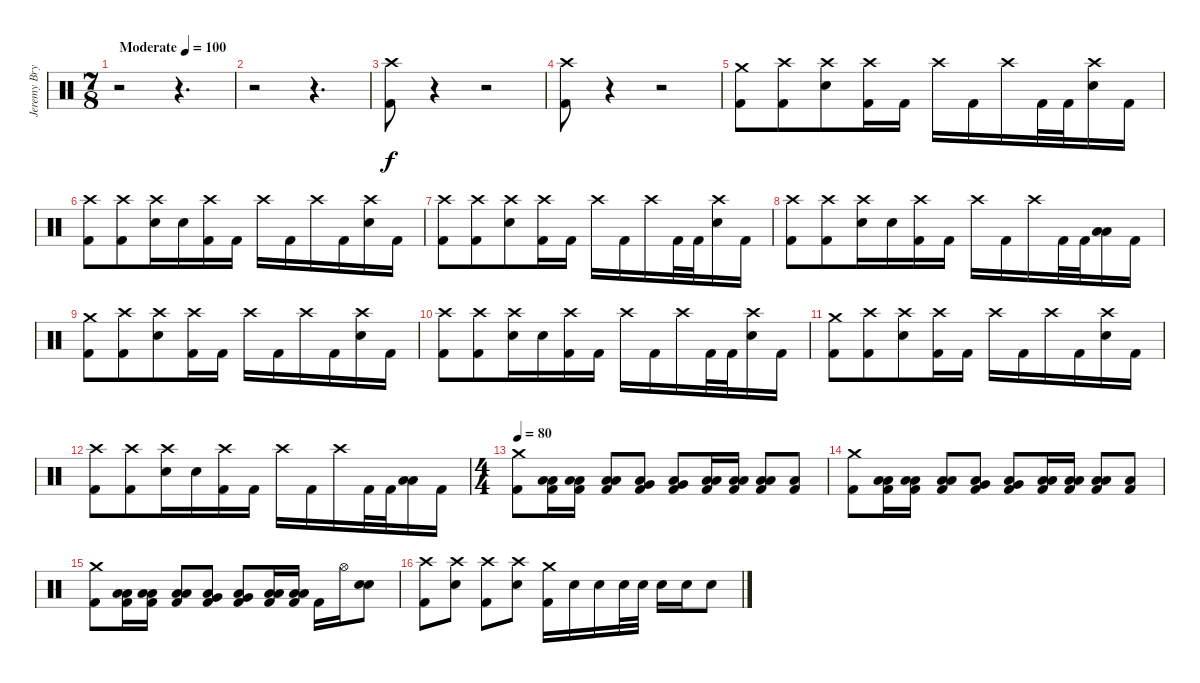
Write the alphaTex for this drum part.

\track ("Jeremy Bryan - Drums" "Jeremy Bry") {instrument percussion}
\staff {score}
\articulation defaults
\ts (7 8)
\tempo (100 "Moderate")
\clef neutral
\ks c
r.2{dy f} r.4{d} |
r.2 r.4{d} |
("Crash high (hit)" "Kick (hit) 2").8 r.4 r.2 |
("Crash high (hit)" "Kick (hit) 2").8 r.4 r.2 |
("Crash medium (hit)" "Kick (hit) 2").8 ("Crash high (hit)" "Kick (hit) 2").8 ("Crash high (hit)" "Electric Snare (hit)").8 ("Crash high (hit)" "Kick (hit) 2").16 "Kick (hit) 2".16 "Crash high (hit)".16 "Kick (hit) 2".16 "Crash high (hit)".16 "Kick (hit) 2".32 "Kick (hit) 2".32 ("Crash high (hit)" "Electric Snare (hit)").16 "Kick (hit) 2".16 |
("Crash high (hit)" "Kick (hit) 2").8 ("Crash high (hit)" "Kick (hit) 2").8 ("Crash high (hit)" "Electric Snare (hit)").16 "Electric Snare (hit)".16 ("Crash high (hit)" "Kick (hit) 2").16 "Kick (hit) 2".16 "Crash high (hit)".16 "Kick (hit) 2".16 "Crash high (hit)".16 "Kick (hit) 2".16 ("Crash high (hit)" "Electric Snare (hit)").16 "Kick (hit) 2".16 |
("Crash high (hit)" "Kick (hit) 2").8 ("Crash high (hit)" "Kick (hit) 2").8 ("Crash high (hit)" "Electric Snare (hit)").8 ("Crash high (hit)" "Kick (hit) 2").16 "Kick (hit) 2".16 "Crash high (hit)".16 "Kick (hit) 2".16 "Crash high (hit)".16 "Kick (hit) 2".32 "Kick (hit) 2".32 ("Crash high (hit)" "Electric Snare (hit)").16 "Kick (hit) 2".16 |
("Crash high (hit)" "Kick (hit) 2").8 ("Crash high (hit)" "Kick (hit) 2").8 ("Crash high (hit)" "Electric Snare (hit)").16 "Electric Snare (hit)".16 ("Crash high (hit)" "Kick (hit) 2").16 "Kick (hit) 2".16 "Crash high (hit)".16 "Kick (hit) 2".16 "Crash high (hit)".16 "Kick (hit) 2".32 "Kick (hit) 2".32 ("Low Tom (hit)" "Low Floor Tom (hit)").16 "Kick (hit) 2".16 |
("Crash medium (hit)" "Kick (hit) 2").8 ("Crash high (hit)" "Kick (hit) 2").8 ("Crash high (hit)" "Electric Snare (hit)").8 ("Crash high (hit)" "Kick (hit) 2").16 "Kick (hit) 2".16 "Crash high (hit)".16 "Kick (hit) 2".16 "Crash high (hit)".16 "Kick (hit) 2".16 ("Crash high (hit)" "Electric Snare (hit)").16 "Kick (hit) 2".16 |
("Crash high (hit)" "Kick (hit) 2").8 ("Crash high (hit)" "Kick (hit) 2").8 ("Crash high (hit)" "Electric Snare (hit)").16 "Electric Snare (hit)".16 ("Crash high (hit)" "Kick (hit) 2").16 "Kick (hit) 2".16 "Crash high (hit)".16 "Kick (hit) 2".16 "Crash high (hit)".16 "Kick (hit) 2".32 "Kick (hit) 2".32 ("Crash high (hit)" "Electric Snare (hit)").16 "Kick (hit) 2".16 |
("Crash medium (hit)" "Kick (hit) 2").8 ("Crash high (hit)" "Kick (hit) 2").8 ("Crash high (hit)" "Electric Snare (hit)").8 ("Crash high (hit)" "Kick (hit) 2").16 "Kick (hit) 2".16 "Crash high (hit)".16 "Kick (hit) 2".16 "Crash high (hit)".16 "Kick (hit) 2".16 ("Crash high (hit)" "Electric Snare (hit)").16 "Kick (hit) 2".16 |
("Crash high (hit)" "Kick (hit) 2").8 ("Crash high (hit)" "Kick (hit) 2").8 ("Crash high (hit)" "Electric Snare (hit)").16 "Electric Snare (hit)".16 ("Crash high (hit)" "Kick (hit) 2").16 "Kick (hit) 2".16 "Crash high (hit)".16 "Kick (hit) 2".16 "Crash high (hit)".16 "Kick (hit) 2".32 "Kick (hit) 2".32 ("Low Tom (hit)" "Low Floor Tom (hit)").16 "Kick (hit) 2".16 |
\ts (4 4)
\tempo 80
("Crash medium (hit)" "Kick (hit) 2").8 ("Low Tom (hit)" "Low Floor Tom (hit)" "Kick (hit) 2").16 ("Low Floor Tom (hit)" "Low Tom (hit)" "Kick (hit) 2").16 ("Low Tom (hit)" "Low Floor Tom (hit)" "Kick (hit) 2").8 ("Very Low Tom (hit)" "Low Floor Tom (hit)" "Kick (hit) 2").8 ("Very Low Tom (hit)" "Low Floor Tom (hit)" "Kick (hit) 2").8 ("Low Tom (hit)" "Low Floor Tom (hit)" "Kick (hit) 2").16 ("Low Tom (hit)" "Low Floor Tom (hit)" "Kick (hit) 2").16 ("Low Tom (hit)" "Low Floor Tom (hit)" "Kick (hit) 2").8 ("Low Floor Tom (hit)" "Kick (hit) 2").8 |
("Crash medium (hit)" "Kick (hit) 2").8 ("Low Tom (hit)" "Low Floor Tom (hit)" "Kick (hit) 2").16 ("Low Floor Tom (hit)" "Low Tom (hit)" "Kick (hit) 2").16 ("Low Tom (hit)" "Low Floor Tom (hit)" "Kick (hit) 2").8 ("Very Low Tom (hit)" "Low Floor Tom (hit)" "Kick (hit) 2").8 ("Very Low Tom (hit)" "Low Floor Tom (hit)" "Kick (hit) 2").8 ("Low Tom (hit)" "Low Floor Tom (hit)" "Kick (hit) 2").16 ("Low Tom (hit)" "Low Floor Tom (hit)" "Kick (hit) 2").16 ("Low Tom (hit)" "Low Floor Tom (hit)" "Kick (hit) 2").8 ("Low Floor Tom (hit)" "Kick (hit) 2").8 |
("Crash medium (hit)" "Kick (hit) 2").8 ("Low Tom (hit)" "Low Floor Tom (hit)" "Kick (hit) 2").16 ("Low Floor Tom (hit)" "Low Tom (hit)" "Kick (hit) 2").16 ("Low Tom (hit)" "Low Floor Tom (hit)" "Kick (hit) 2").8 ("Very Low Tom (hit)" "Low Floor Tom (hit)" "Kick (hit) 2").8 ("Very Low Tom (hit)" "Low Floor Tom (hit)" "Kick (hit) 2").8 ("Low Tom (hit)" "Low Floor Tom (hit)" "Kick (hit) 2").16 ("Low Tom (hit)" "Low Floor Tom (hit)" "Kick (hit) 2").16 "Kick (hit) 2".16 "Hi-Hat (open)".16 ("Electric Snare (hit)" "Electric Snare (hit)").8 |
("Crash high (hit)" "Kick (hit) 2").8 ("Crash high (hit)" "Electric Snare (hit)").8 ("Crash high (hit)" "Kick (hit) 2").8 ("Crash high (hit)" "Electric Snare (hit)").8 ("Crash medium (hit)" "Kick (hit) 2").16 "Electric Snare (hit)".16 "Electric Snare (hit)".16 "Electric Snare (hit)".32 "Electric Snare (hit)".32 "Electric Snare (hit)".16 "Electric Snare (hit)".16 "Electric Snare (hit)".8
